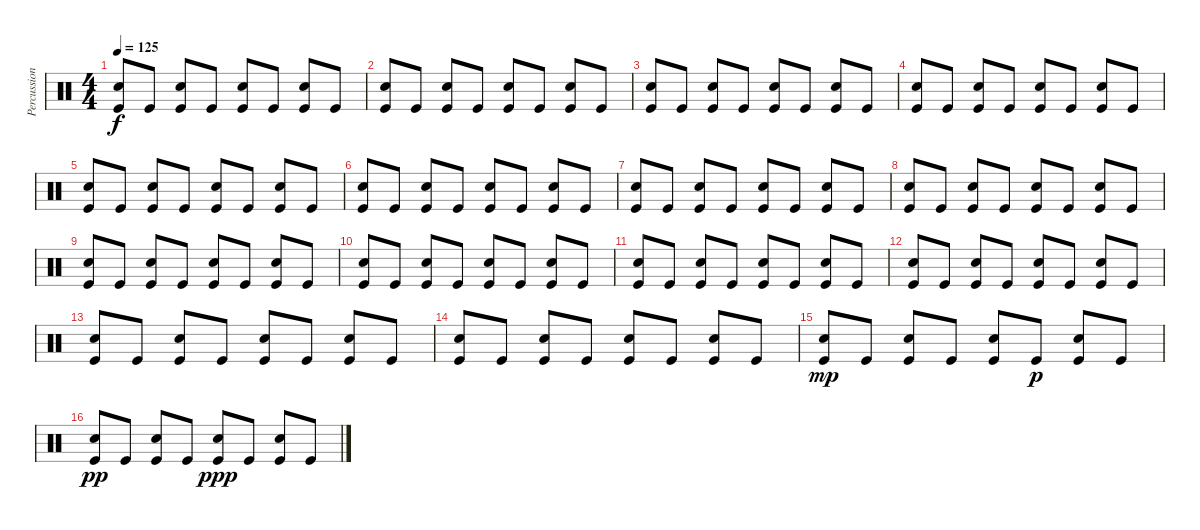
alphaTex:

\track ("Percussion" "Percussion") {instrument percussion}
\staff {score}
\articulation defaults
\ts (4 4)
\tempo 125
\clef neutral
\ks c
("Snare (hit) 2" "Kick (hit)").8{dy f} "Kick (hit)".8 ("Snare (hit) 2" "Kick (hit)").8 "Kick (hit)".8 ("Snare (hit) 2" "Kick (hit)").8 "Kick (hit)".8 ("Snare (hit) 2" "Kick (hit)").8 "Kick (hit)".8 |
("Snare (hit) 2" "Kick (hit)").8 "Kick (hit)".8 ("Snare (hit) 2" "Kick (hit)").8 "Kick (hit)".8 ("Snare (hit) 2" "Kick (hit)").8 "Kick (hit)".8 ("Snare (hit) 2" "Kick (hit)").8 "Kick (hit)".8 |
("Snare (hit) 2" "Kick (hit)").8 "Kick (hit)".8 ("Snare (hit) 2" "Kick (hit)").8 "Kick (hit)".8 ("Snare (hit) 2" "Kick (hit)").8 "Kick (hit)".8 ("Snare (hit) 2" "Kick (hit)").8 "Kick (hit)".8 |
("Snare (hit) 2" "Kick (hit)").8 "Kick (hit)".8 ("Snare (hit) 2" "Kick (hit)").8 "Kick (hit)".8 ("Snare (hit) 2" "Kick (hit)").8 "Kick (hit)".8 ("Snare (hit) 2" "Kick (hit)").8 "Kick (hit)".8 |
("Snare (hit) 2" "Kick (hit)").8 "Kick (hit)".8 ("Snare (hit) 2" "Kick (hit)").8 "Kick (hit)".8 ("Snare (hit) 2" "Kick (hit)").8 "Kick (hit)".8 ("Snare (hit) 2" "Kick (hit)").8 "Kick (hit)".8 |
("Snare (hit) 2" "Kick (hit)").8 "Kick (hit)".8 ("Snare (hit) 2" "Kick (hit)").8 "Kick (hit)".8 ("Snare (hit) 2" "Kick (hit)").8 "Kick (hit)".8 ("Snare (hit) 2" "Kick (hit)").8 "Kick (hit)".8 |
("Snare (hit) 2" "Kick (hit)").8 "Kick (hit)".8 ("Snare (hit) 2" "Kick (hit)").8 "Kick (hit)".8 ("Snare (hit) 2" "Kick (hit)").8 "Kick (hit)".8 ("Snare (hit) 2" "Kick (hit)").8 "Kick (hit)".8 |
("Snare (hit) 2" "Kick (hit)").8 "Kick (hit)".8 ("Snare (hit) 2" "Kick (hit)").8 "Kick (hit)".8 ("Snare (hit) 2" "Kick (hit)").8 "Kick (hit)".8 ("Snare (hit) 2" "Kick (hit)").8 "Kick (hit)".8 |
("Snare (hit) 2" "Kick (hit)").8 "Kick (hit)".8 ("Snare (hit) 2" "Kick (hit)").8 "Kick (hit)".8 ("Snare (hit) 2" "Kick (hit)").8 "Kick (hit)".8 ("Snare (hit) 2" "Kick (hit)").8 "Kick (hit)".8 |
("Snare (hit) 2" "Kick (hit)").8 "Kick (hit)".8 ("Snare (hit) 2" "Kick (hit)").8 "Kick (hit)".8 ("Snare (hit) 2" "Kick (hit)").8 "Kick (hit)".8 ("Snare (hit) 2" "Kick (hit)").8 "Kick (hit)".8 |
("Snare (hit) 2" "Kick (hit)").8 "Kick (hit)".8 ("Snare (hit) 2" "Kick (hit)").8 "Kick (hit)".8 ("Snare (hit) 2" "Kick (hit)").8 "Kick (hit)".8 ("Snare (hit) 2" "Kick (hit)").8 "Kick (hit)".8 |
("Snare (hit) 2" "Kick (hit)").8 "Kick (hit)".8 ("Snare (hit) 2" "Kick (hit)").8 "Kick (hit)".8 ("Snare (hit) 2" "Kick (hit)").8 "Kick (hit)".8 ("Snare (hit) 2" "Kick (hit)").8 "Kick (hit)".8 |
("Snare (hit) 2" "Kick (hit)").8 "Kick (hit)".8 ("Snare (hit) 2" "Kick (hit)").8 "Kick (hit)".8 ("Snare (hit) 2" "Kick (hit)").8 "Kick (hit)".8 ("Snare (hit) 2" "Kick (hit)").8 "Kick (hit)".8 |
("Snare (hit) 2" "Kick (hit)").8 "Kick (hit)".8 ("Snare (hit) 2" "Kick (hit)").8 "Kick (hit)".8 ("Snare (hit) 2" "Kick (hit)").8 "Kick (hit)".8 ("Snare (hit) 2" "Kick (hit)").8 "Kick (hit)".8 |
("Snare (hit) 2" "Kick (hit)").8{dy mp} "Kick (hit)".8 ("Snare (hit) 2" "Kick (hit)").8 "Kick (hit)".8 ("Snare (hit) 2" "Kick (hit)").8 "Kick (hit)".8{dy p} ("Snare (hit) 2" "Kick (hit)").8 "Kick (hit)".8 |
("Snare (hit) 2" "Kick (hit)").8{dy pp} "Kick (hit)".8 ("Snare (hit) 2" "Kick (hit)").8 "Kick (hit)".8 ("Snare (hit) 2" "Kick (hit)").8{dy ppp} "Kick (hit)".8 ("Snare (hit) 2" "Kick (hit)").8 "Kick (hit)".8
